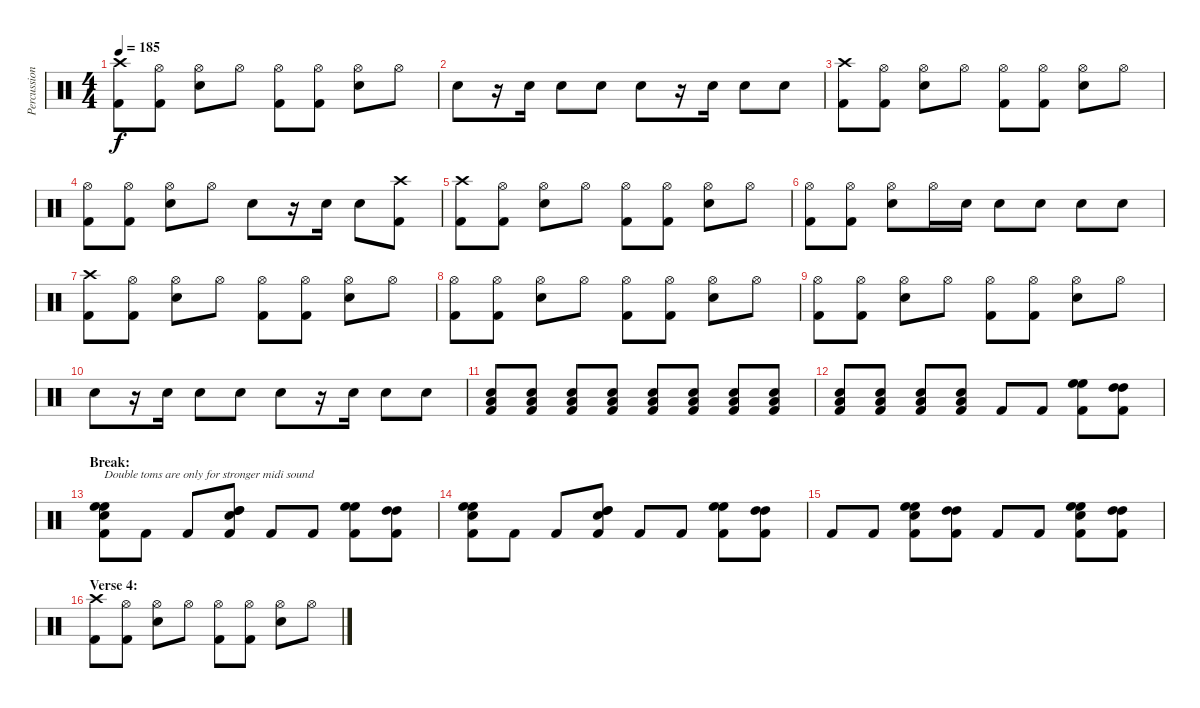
\track ("Percussion" "Percussion") {instrument percussion}
\staff {score}
\articulation defaults
\ts (4 4)
\tempo 185
\clef neutral
\ks c
("Crash high (hit)" "Kick (hit) 2").8{dy f} ("Hi-Hat (open)" "Kick (hit) 2").8 ("Hi-Hat (open)" "Snare (hit) 2").8 "Hi-Hat (open)".8 ("Hi-Hat (open)" "Kick (hit) 2").8 ("Hi-Hat (open)" "Kick (hit) 2").8 ("Hi-Hat (open)" "Snare (hit) 2").8 "Hi-Hat (open)".8 |
"Snare (hit) 2".8 r.16 "Snare (hit) 2".16 "Snare (hit) 2".8 "Snare (hit) 2".8 "Snare (hit) 2".8 r.16 "Snare (hit) 2".16 "Snare (hit) 2".8 "Snare (hit) 2".8 |
("Crash high (hit)" "Kick (hit) 2").8 ("Hi-Hat (open)" "Kick (hit) 2").8 ("Hi-Hat (open)" "Snare (hit) 2").8 "Hi-Hat (open)".8 ("Hi-Hat (open)" "Kick (hit) 2").8 ("Hi-Hat (open)" "Kick (hit) 2").8 ("Hi-Hat (open)" "Snare (hit) 2").8 "Hi-Hat (open)".8 |
("Hi-Hat (open)" "Kick (hit) 2").8 ("Hi-Hat (open)" "Kick (hit) 2").8 ("Hi-Hat (open)" "Snare (hit) 2").8 "Hi-Hat (open)".8 "Snare (hit) 2".8 r.16 "Snare (hit) 2".16 "Snare (hit) 2".8 ("Crash high (hit)" "Kick (hit) 2").8 |
("Crash high (hit)" "Kick (hit) 2").8 ("Hi-Hat (open)" "Kick (hit) 2").8 ("Hi-Hat (open)" "Snare (hit) 2").8 "Hi-Hat (open)".8 ("Hi-Hat (open)" "Kick (hit) 2").8 ("Hi-Hat (open)" "Kick (hit) 2").8 ("Hi-Hat (open)" "Snare (hit) 2").8 "Hi-Hat (open)".8 |
("Hi-Hat (open)" "Kick (hit) 2").8 ("Hi-Hat (open)" "Kick (hit) 2").8 ("Hi-Hat (open)" "Snare (hit) 2").8 "Hi-Hat (open)".16 "Snare (hit) 2".16 "Snare (hit) 2".8 "Snare (hit) 2".8 "Snare (hit) 2".8 "Snare (hit) 2".8 |
("Crash high (hit)" "Kick (hit) 2").8 ("Hi-Hat (open)" "Kick (hit) 2").8 ("Hi-Hat (open)" "Snare (hit) 2").8 "Hi-Hat (open)".8 ("Hi-Hat (open)" "Kick (hit) 2").8 ("Hi-Hat (open)" "Kick (hit) 2").8 ("Hi-Hat (open)" "Snare (hit) 2").8 "Hi-Hat (open)".8 |
("Hi-Hat (open)" "Kick (hit) 2").8 ("Hi-Hat (open)" "Kick (hit) 2").8 ("Hi-Hat (open)" "Snare (hit) 2").8 "Hi-Hat (open)".8 ("Hi-Hat (open)" "Kick (hit) 2").8 ("Hi-Hat (open)" "Kick (hit) 2").8 ("Hi-Hat (open)" "Snare (hit) 2").8 "Hi-Hat (open)".8 |
("Hi-Hat (open)" "Kick (hit) 2").8 ("Hi-Hat (open)" "Kick (hit) 2").8 ("Hi-Hat (open)" "Snare (hit) 2").8 "Hi-Hat (open)".8 ("Hi-Hat (open)" "Kick (hit) 2").8 ("Hi-Hat (open)" "Kick (hit) 2").8 ("Hi-Hat (open)" "Snare (hit) 2").8 "Hi-Hat (open)".8 |
"Snare (hit) 2".8 r.16 "Snare (hit) 2".16 "Snare (hit) 2".8 "Snare (hit) 2".8 "Snare (hit) 2".8 r.16 "Snare (hit) 2".16 "Snare (hit) 2".8 "Snare (hit) 2".8 |
("Low Tom (hit)" "Snare (hit) 2" "Kick (hit) 2").8 ("Low Tom (hit)" "Snare (hit) 2" "Kick (hit) 2").8 ("Low Tom (hit)" "Snare (hit) 2" "Kick (hit) 2").8 ("Low Tom (hit)" "Snare (hit) 2" "Kick (hit) 2").8 ("Low Tom (hit)" "Snare (hit) 2" "Kick (hit) 2").8 ("Low Tom (hit)" "Snare (hit) 2" "Kick (hit) 2").8 ("Low Tom (hit)" "Snare (hit) 2" "Kick (hit) 2").8 ("Low Tom (hit)" "Snare (hit) 2" "Kick (hit) 2").8 |
("Low Tom (hit)" "Snare (hit) 2" "Kick (hit) 2").8 ("Low Tom (hit)" "Snare (hit) 2" "Kick (hit) 2").8 ("Low Tom (hit)" "Snare (hit) 2" "Kick (hit) 2").8 ("Low Tom (hit)" "Snare (hit) 2" "Kick (hit) 2").8 "Kick (hit) 2".8 "Kick (hit) 2".8 ("High Floor Tom (hit)" "High Floor Tom (hit)" "Kick (hit) 2").8 ("High Tom (hit)" "High Tom (hit)" "Kick (hit) 2").8 |
\section ("" "Break:")
("High Floor Tom (hit)" "High Floor Tom (hit)" "Snare (hit) 2" "Kick (hit) 2").8{txt "Double toms are only for stronger midi sound"} "Kick (hit) 2".8 "Kick (hit) 2".8 ("High Tom (hit)" "High Tom (hit)" "Snare (hit) 2" "Kick (hit) 2").8 "Kick (hit) 2".8 "Kick (hit) 2".8 ("High Floor Tom (hit)" "High Floor Tom (hit)" "Kick (hit) 2").8 ("High Tom (hit)" "High Tom (hit)" "Kick (hit) 2").8 |
("High Floor Tom (hit)" "High Floor Tom (hit)" "Snare (hit) 2" "Kick (hit) 2").8 "Kick (hit) 2".8 "Kick (hit) 2".8 ("High Tom (hit)" "High Tom (hit)" "Snare (hit) 2" "Kick (hit) 2").8 "Kick (hit) 2".8 "Kick (hit) 2".8 ("High Floor Tom (hit)" "High Floor Tom (hit)" "Kick (hit) 2").8 ("High Tom (hit)" "High Tom (hit)" "Kick (hit) 2").8 |
"Kick (hit) 2".8 "Kick (hit) 2".8 ("High Floor Tom (hit)" "High Floor Tom (hit)" "Snare (hit) 2" "Kick (hit) 2").8 ("High Tom (hit)" "High Tom (hit)" "Kick (hit) 2").8 "Kick (hit) 2".8 "Kick (hit) 2".8 ("High Floor Tom (hit)" "High Floor Tom (hit)" "Snare (hit) 2" "Kick (hit) 2").8 ("High Tom (hit)" "High Tom (hit)" "Kick (hit) 2").8 |
\section ("" "Verse 4:")
("Crash high (hit)" "Kick (hit) 2").8 ("Hi-Hat (open)" "Kick (hit) 2").8 ("Hi-Hat (open)" "Snare (hit) 2").8 "Hi-Hat (open)".8 ("Hi-Hat (open)" "Kick (hit) 2").8 ("Hi-Hat (open)" "Kick (hit) 2").8 ("Hi-Hat (open)" "Snare (hit) 2").8 "Hi-Hat (open)".8
